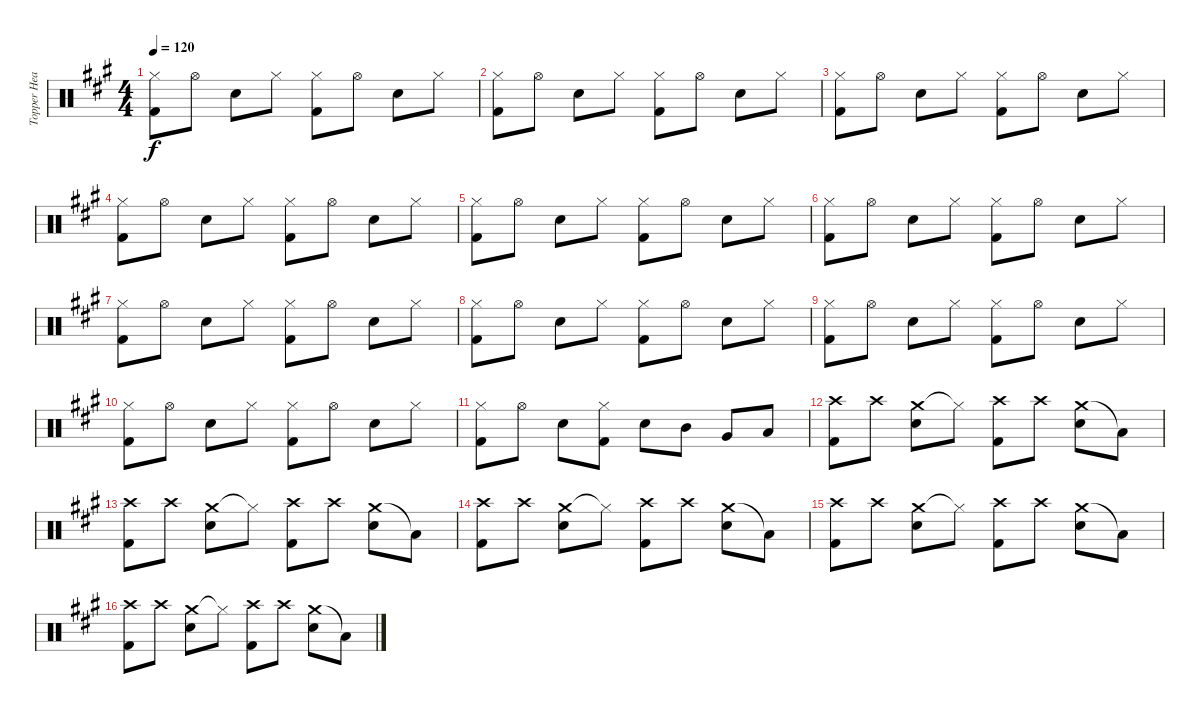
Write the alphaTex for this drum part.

\track ("Topper Headon (Drum)" "Topper Hea") {instrument percussion}
\staff {score}
\articulation defaults
\ts (4 4)
\tempo 120
\clef neutral
\ks a
("Hi-Hat (closed)" "Kick (hit) 2").8{dy f} "Hi-Hat (open)".8 "Electric Snare (hit)".8 "Hi-Hat (closed)".8 ("Hi-Hat (closed)" "Kick (hit) 2").8 "Hi-Hat (open)".8 "Electric Snare (hit)".8 "Hi-Hat (closed)".8 |
("Hi-Hat (closed)" "Kick (hit) 2").8 "Hi-Hat (open)".8 "Electric Snare (hit)".8 "Hi-Hat (closed)".8 ("Hi-Hat (closed)" "Kick (hit) 2").8 "Hi-Hat (open)".8 "Electric Snare (hit)".8 "Hi-Hat (closed)".8 |
("Hi-Hat (closed)" "Kick (hit) 2").8 "Hi-Hat (open)".8 "Electric Snare (hit)".8 "Hi-Hat (closed)".8 ("Hi-Hat (closed)" "Kick (hit) 2").8 "Hi-Hat (open)".8 "Electric Snare (hit)".8 "Hi-Hat (closed)".8 |
("Hi-Hat (closed)" "Kick (hit) 2").8 "Hi-Hat (open)".8 "Electric Snare (hit)".8 "Hi-Hat (closed)".8 ("Hi-Hat (closed)" "Kick (hit) 2").8 "Hi-Hat (open)".8 "Electric Snare (hit)".8 "Hi-Hat (closed)".8 |
("Hi-Hat (closed)" "Kick (hit) 2").8 "Hi-Hat (open)".8 "Electric Snare (hit)".8 "Hi-Hat (closed)".8 ("Hi-Hat (closed)" "Kick (hit) 2").8 "Hi-Hat (open)".8 "Electric Snare (hit)".8 "Hi-Hat (closed)".8 |
("Hi-Hat (closed)" "Kick (hit) 2").8 "Hi-Hat (open)".8 "Electric Snare (hit)".8 "Hi-Hat (closed)".8 ("Hi-Hat (closed)" "Kick (hit) 2").8 "Hi-Hat (open)".8 "Electric Snare (hit)".8 "Hi-Hat (closed)".8 |
("Hi-Hat (closed)" "Kick (hit) 2").8 "Hi-Hat (open)".8 "Electric Snare (hit)".8 "Hi-Hat (closed)".8 ("Hi-Hat (closed)" "Kick (hit) 2").8 "Hi-Hat (open)".8 "Electric Snare (hit)".8 "Hi-Hat (closed)".8 |
("Hi-Hat (closed)" "Kick (hit) 2").8 "Hi-Hat (open)".8 "Electric Snare (hit)".8 "Hi-Hat (closed)".8 ("Hi-Hat (closed)" "Kick (hit) 2").8 "Hi-Hat (open)".8 "Electric Snare (hit)".8 "Hi-Hat (closed)".8 |
("Hi-Hat (closed)" "Kick (hit) 2").8 "Hi-Hat (open)".8 "Electric Snare (hit)".8 "Hi-Hat (closed)".8 ("Hi-Hat (closed)" "Kick (hit) 2").8 "Hi-Hat (open)".8 "Electric Snare (hit)".8 "Hi-Hat (closed)".8 |
("Hi-Hat (closed)" "Kick (hit) 2").8 "Hi-Hat (open)".8 "Electric Snare (hit)".8 "Hi-Hat (closed)".8 ("Hi-Hat (closed)" "Kick (hit) 2").8 "Hi-Hat (open)".8 "Electric Snare (hit)".8 "Hi-Hat (closed)".8 |
("Hi-Hat (closed)" "Kick (hit) 2").8 "Hi-Hat (open)".8 "Electric Snare (hit)".8 ("Hi-Hat (closed)" "Kick (hit) 2").8 "Electric Snare (hit)".8 "Mid Tom (hit)".8 "Very Low Tom (hit)".8 "Low Floor Tom (hit)".8 |
("Crash high (hit)" "Kick (hit) 2").8 "Crash high (hit)".8 ("Crash medium (hit)" "Electric Snare (hit)").8 "Hi-Hat (closed)"{t}.8 ("Crash high (hit)" "Kick (hit) 2").8 "Crash high (hit)".8 ("Crash medium (hit)" "Electric Snare (hit)").8 "Low Floor Tom (hit)"{t}.8 |
("Crash high (hit)" "Kick (hit) 2").8 "Crash high (hit)".8 ("Crash medium (hit)" "Electric Snare (hit)").8 "Hi-Hat (closed)"{t}.8 ("Crash high (hit)" "Kick (hit) 2").8 "Crash high (hit)".8 ("Crash medium (hit)" "Electric Snare (hit)").8 "Low Floor Tom (hit)"{t}.8 |
("Crash high (hit)" "Kick (hit) 2").8 "Crash high (hit)".8 ("Crash medium (hit)" "Electric Snare (hit)").8 "Hi-Hat (closed)"{t}.8 ("Crash high (hit)" "Kick (hit) 2").8 "Crash high (hit)".8 ("Crash medium (hit)" "Electric Snare (hit)").8 "Low Floor Tom (hit)"{t}.8 |
("Crash high (hit)" "Kick (hit) 2").8 "Crash high (hit)".8 ("Crash medium (hit)" "Electric Snare (hit)").8 "Hi-Hat (closed)"{t}.8 ("Crash high (hit)" "Kick (hit) 2").8 "Crash high (hit)".8 ("Crash medium (hit)" "Electric Snare (hit)").8 "Low Floor Tom (hit)"{t}.8 |
("Crash high (hit)" "Kick (hit) 2").8 "Crash high (hit)".8 ("Crash medium (hit)" "Electric Snare (hit)").8 "Hi-Hat (closed)"{t}.8 ("Crash high (hit)" "Kick (hit) 2").8 "Crash high (hit)".8 ("Crash medium (hit)" "Electric Snare (hit)").8 "Low Floor Tom (hit)"{t}.8
